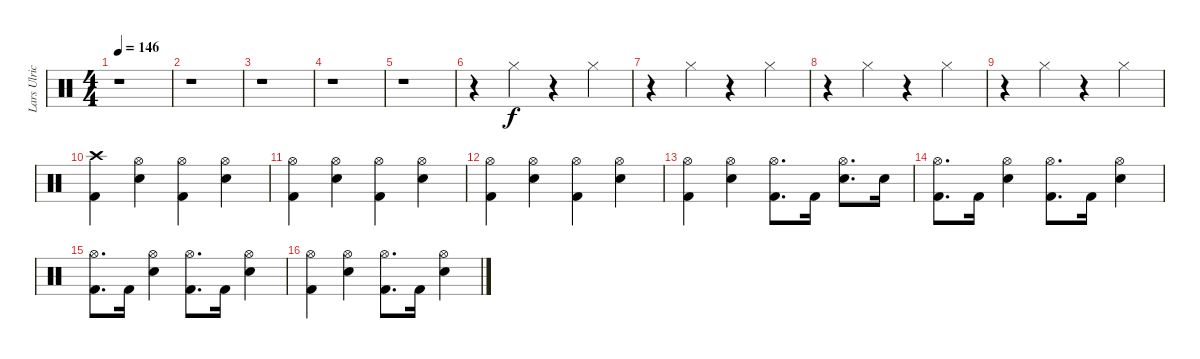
\track ("Lars Ulrich" "Lars Ulric") {instrument percussion}
\staff {score}
\articulation defaults
\ts (4 4)
\tempo 146
\clef neutral
\ks c
r.1{dy f} |
r.1 |
r.1 |
r.1 |
r.1 |
r.4 "Hi-Hat (closed)".4 r.4 "Hi-Hat (closed)".4 |
r.4 "Hi-Hat (closed)".4 r.4 "Hi-Hat (closed)".4 |
r.4 "Hi-Hat (closed)".4 r.4 "Hi-Hat (closed)".4 |
r.4 "Hi-Hat (closed)".4 r.4 "Hi-Hat (closed)".4 |
("Crash high (hit)" "Kick (hit) 2").4 ("Hi-Hat (open)" "Electric Snare (hit)").4 ("Hi-Hat (open)" "Kick (hit) 2").4 ("Hi-Hat (open)" "Electric Snare (hit)").4 |
("Hi-Hat (open)" "Kick (hit) 2").4 ("Hi-Hat (open)" "Electric Snare (hit)").4 ("Hi-Hat (open)" "Kick (hit) 2").4 ("Hi-Hat (open)" "Electric Snare (hit)").4 |
("Hi-Hat (open)" "Kick (hit) 2").4 ("Hi-Hat (open)" "Electric Snare (hit)").4 ("Hi-Hat (open)" "Kick (hit) 2").4 ("Hi-Hat (open)" "Electric Snare (hit)").4 |
("Hi-Hat (open)" "Kick (hit) 2").4 ("Hi-Hat (open)" "Electric Snare (hit)").4 ("Hi-Hat (open)" "Kick (hit) 2").8{d} "Kick (hit) 2".16 ("Hi-Hat (open)" "Electric Snare (hit)").8{d} "Electric Snare (hit)".16 |
("Hi-Hat (open)" "Kick (hit) 2").8{d} "Kick (hit) 2".16 ("Hi-Hat (open)" "Electric Snare (hit)").4 ("Hi-Hat (open)" "Kick (hit) 2").8{d} "Kick (hit) 2".16 ("Hi-Hat (open)" "Electric Snare (hit)").4 |
("Hi-Hat (open)" "Kick (hit) 2").8{d} "Kick (hit) 2".16 ("Hi-Hat (open)" "Electric Snare (hit)").4 ("Hi-Hat (open)" "Kick (hit) 2").8{d} "Kick (hit) 2".16 ("Hi-Hat (open)" "Electric Snare (hit)").4 |
("Hi-Hat (open)" "Kick (hit) 2").4 ("Hi-Hat (open)" "Electric Snare (hit)").4 ("Hi-Hat (open)" "Kick (hit) 2").8{d} "Kick (hit) 2".16 ("Hi-Hat (open)" "Electric Snare (hit)").4
